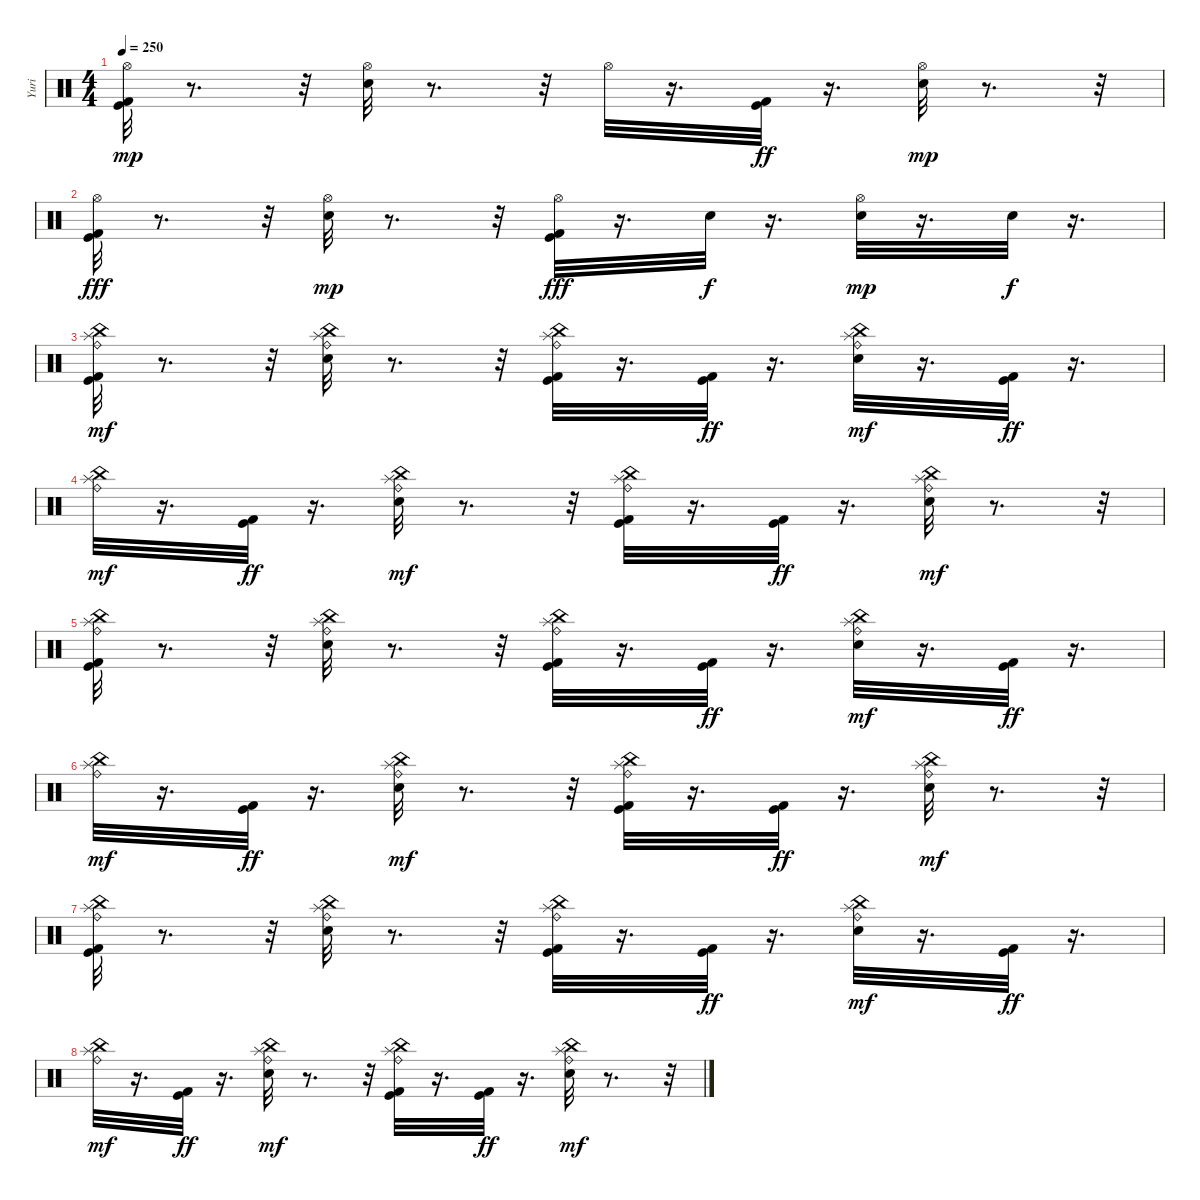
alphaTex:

\track ("Yuri" "Yuri") {instrument percussion}
\staff {score}
\articulation defaults
\ts (4 4)
\tempo 250
\clef neutral
\ks c
("Kick (hit) 2" "Kick (hit)" "Hi-Hat (open)").32{dy mp} r.8{d} r.32 ("Snare (hit) 2" "Hi-Hat (open)").32 r.8{d} r.32 "Hi-Hat (open)".32 r.16{d} ("Kick (hit) 2" "Kick (hit)").32{dy ff} r.16{d} ("Snare (hit) 2" "Hi-Hat (open)").32{dy mp} r.8{d} r.32 |
("Hi-Hat (open)" "Kick (hit) 2" "Kick (hit)").32{dy fff} r.8{d} r.32 ("Snare (hit) 2" "Hi-Hat (open)").32{dy mp} r.8{d} r.32 ("Hi-Hat (open)" "Kick (hit) 2" "Kick (hit)").32{dy fff} r.16{d} "Snare (hit) 2".32{dy f} r.16{d} ("Snare (hit) 2" "Hi-Hat (open)").32{dy mp} r.16{d} "Snare (hit) 2".32{dy f} r.16{d} |
("Kick (hit) 2" "Kick (hit)" "Ride (bell)" "China (hit)" "Splash (hit)").32{dy mf} r.8{d} r.32 ("Snare (hit) 2" "Ride (bell)" "China (hit)" "Splash (hit)").32 r.8{d} r.32 ("Kick (hit) 2" "Kick (hit)" "Ride (bell)" "China (hit)" "Splash (hit)").32 r.16{d} ("Kick (hit) 2" "Kick (hit)").32{dy ff} r.16{d} ("Snare (hit) 2" "Ride (bell)" "China (hit)" "Splash (hit)").32{dy mf} r.16{d} ("Kick (hit) 2" "Kick (hit)").32{dy ff} r.16{d} |
("Ride (bell)" "China (hit)" "Splash (hit)").32{dy mf} r.16{d} ("Kick (hit) 2" "Kick (hit)").32{dy ff} r.16{d} ("Snare (hit) 2" "Ride (bell)" "China (hit)" "Splash (hit)").32{dy mf} r.8{d} r.32 ("Kick (hit) 2" "Kick (hit)" "Ride (bell)" "China (hit)" "Splash (hit)").32 r.16{d} ("Kick (hit) 2" "Kick (hit)").32{dy ff} r.16{d} ("Snare (hit) 2" "Ride (bell)" "China (hit)" "Splash (hit)").32{dy mf} r.8{d} r.32 |
("Kick (hit) 2" "Kick (hit)" "Ride (bell)" "China (hit)" "Splash (hit)").32 r.8{d} r.32 ("Snare (hit) 2" "Ride (bell)" "China (hit)" "Splash (hit)").32 r.8{d} r.32 ("Kick (hit) 2" "Kick (hit)" "Ride (bell)" "China (hit)" "Splash (hit)").32 r.16{d} ("Kick (hit) 2" "Kick (hit)").32{dy ff} r.16{d} ("Snare (hit) 2" "Ride (bell)" "China (hit)" "Splash (hit)").32{dy mf} r.16{d} ("Kick (hit) 2" "Kick (hit)").32{dy ff} r.16{d} |
("Ride (bell)" "China (hit)" "Splash (hit)").32{dy mf} r.16{d} ("Kick (hit) 2" "Kick (hit)").32{dy ff} r.16{d} ("Snare (hit) 2" "Ride (bell)" "China (hit)" "Splash (hit)").32{dy mf} r.8{d} r.32 ("Kick (hit) 2" "Kick (hit)" "Ride (bell)" "China (hit)" "Splash (hit)").32 r.16{d} ("Kick (hit) 2" "Kick (hit)").32{dy ff} r.16{d} ("Snare (hit) 2" "Ride (bell)" "China (hit)" "Splash (hit)").32{dy mf} r.8{d} r.32 |
("Kick (hit) 2" "Kick (hit)" "Ride (bell)" "China (hit)" "Splash (hit)").32 r.8{d} r.32 ("Snare (hit) 2" "Ride (bell)" "China (hit)" "Splash (hit)").32 r.8{d} r.32 ("Kick (hit) 2" "Kick (hit)" "Ride (bell)" "China (hit)" "Splash (hit)").32 r.16{d} ("Kick (hit) 2" "Kick (hit)").32{dy ff} r.16{d} ("Snare (hit) 2" "Ride (bell)" "China (hit)" "Splash (hit)").32{dy mf} r.16{d} ("Kick (hit) 2" "Kick (hit)").32{dy ff} r.16{d} |
("Ride (bell)" "China (hit)" "Splash (hit)").32{dy mf} r.16{d} ("Kick (hit) 2" "Kick (hit)").32{dy ff} r.16{d} ("Snare (hit) 2" "Ride (bell)" "China (hit)" "Splash (hit)").32{dy mf} r.8{d} r.32 ("Kick (hit) 2" "Kick (hit)" "Ride (bell)" "China (hit)" "Splash (hit)").32 r.16{d} ("Kick (hit) 2" "Kick (hit)").32{dy ff} r.16{d} ("Snare (hit) 2" "Ride (bell)" "China (hit)" "Splash (hit)").32{dy mf} r.8{d} r.32
